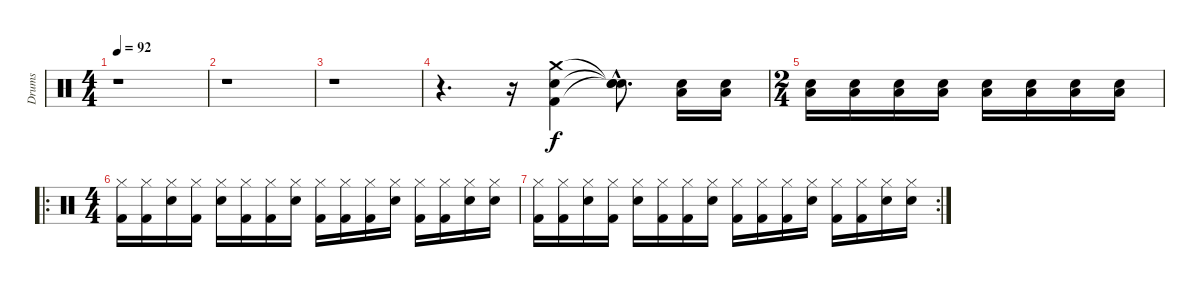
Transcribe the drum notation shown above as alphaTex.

\track ("Drums" "Drums") {instrument percussion}
\staff {score}
\articulation defaults
\ts (4 4)
\tempo 92
\clef neutral
\ks c
r.1{dy f} |
r.1 |
r.1 |
r.4{d} r.16 ("Crash medium (hit)" "Electric Snare (hit)" "Kick (hit) 2").4 ("Snare (hit)"{hac t} "Snare (hit)"{hac t} "Snare (hit)"{hac t}).8{d} ("Low Floor Tom (hit)" "Electric Snare (hit)").16 ("Low Floor Tom (hit)" "Electric Snare (hit)").16 |
\ts (2 4)
("Low Floor Tom (hit)" "Electric Snare (hit)").16 ("Low Floor Tom (hit)" "Electric Snare (hit)").16 ("Low Floor Tom (hit)" "Electric Snare (hit)").16 ("Low Floor Tom (hit)" "Electric Snare (hit)").16 ("Low Floor Tom (hit)" "Electric Snare (hit)").16 ("Low Floor Tom (hit)" "Electric Snare (hit)").16 ("Low Floor Tom (hit)" "Electric Snare (hit)").16 ("Low Floor Tom (hit)" "Electric Snare (hit)").16 |
\ro
\ts (4 4)
("Hi-Hat (closed)" "Kick (hit) 2").16 ("Hi-Hat (closed)" "Kick (hit) 2").16 ("Hi-Hat (closed)" "Electric Snare (hit)").16 ("Hi-Hat (closed)" "Kick (hit) 2").16 ("Hi-Hat (closed)" "Electric Snare (hit)").16 ("Hi-Hat (closed)" "Kick (hit) 2").16 ("Hi-Hat (closed)" "Kick (hit) 2").16 ("Hi-Hat (closed)" "Electric Snare (hit)").16 ("Hi-Hat (closed)" "Kick (hit) 2").16 ("Hi-Hat (closed)" "Kick (hit) 2").16 ("Hi-Hat (closed)" "Kick (hit) 2").16 ("Hi-Hat (closed)" "Electric Snare (hit)").16 ("Hi-Hat (closed)" "Kick (hit) 2").16 ("Hi-Hat (closed)" "Kick (hit) 2").16 ("Hi-Hat (closed)" "Electric Snare (hit)").16 ("Hi-Hat (closed)" "Electric Snare (hit)").16 |
\rc 2
("Hi-Hat (closed)" "Kick (hit) 2").16 ("Hi-Hat (closed)" "Kick (hit) 2").16 ("Hi-Hat (closed)" "Electric Snare (hit)").16 ("Hi-Hat (closed)" "Kick (hit) 2").16 ("Hi-Hat (closed)" "Electric Snare (hit)").16 ("Hi-Hat (closed)" "Kick (hit) 2").16 ("Hi-Hat (closed)" "Kick (hit) 2").16 ("Hi-Hat (closed)" "Electric Snare (hit)").16 ("Hi-Hat (closed)" "Kick (hit) 2").16 ("Hi-Hat (closed)" "Kick (hit) 2").16 ("Hi-Hat (closed)" "Kick (hit) 2").16 ("Hi-Hat (closed)" "Electric Snare (hit)").16 ("Hi-Hat (closed)" "Kick (hit) 2").16 ("Hi-Hat (closed)" "Kick (hit) 2").16 ("Hi-Hat (closed)" "Electric Snare (hit)").16 ("Hi-Hat (closed)" "Electric Snare (hit)").16
